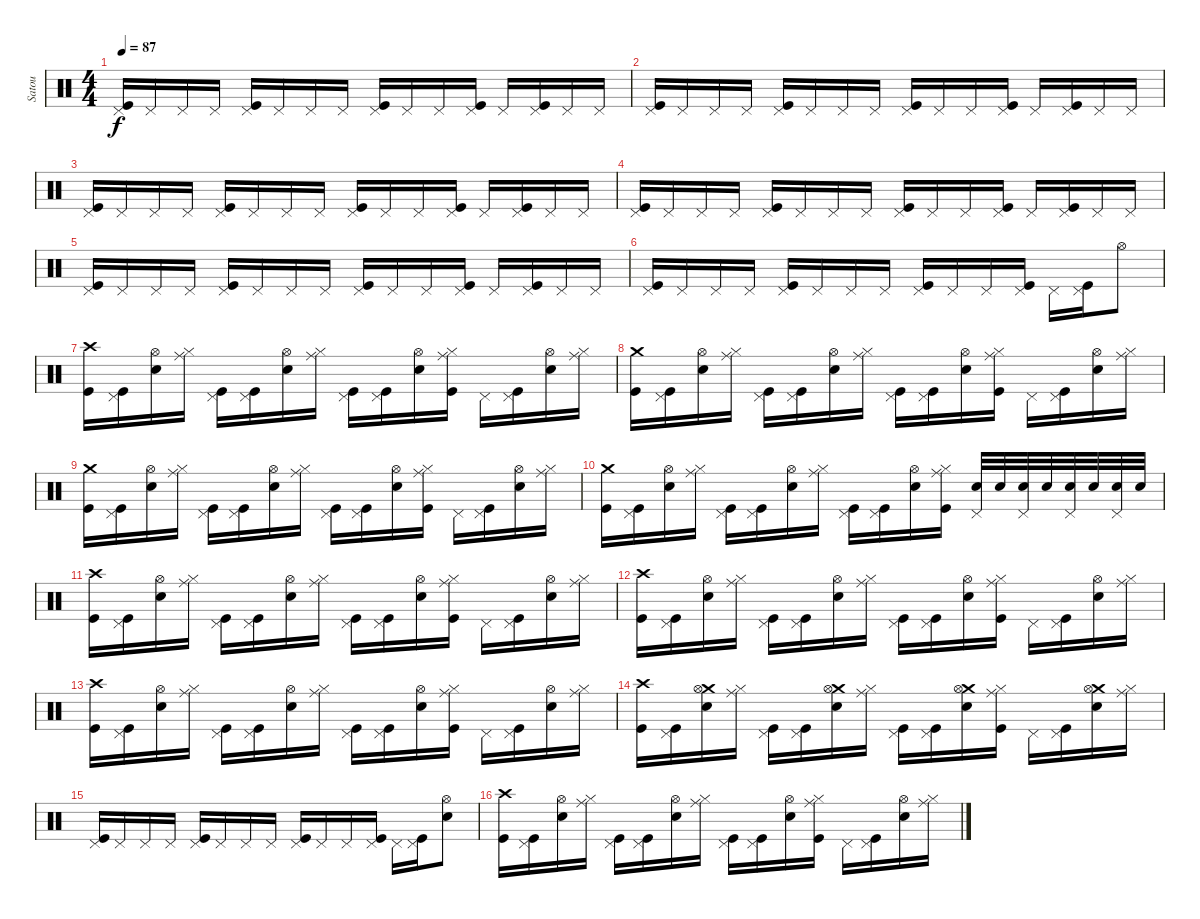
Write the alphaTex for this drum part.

\track ("Satou" "Satou") {instrument percussion}
\staff {score}
\articulation defaults
\ts (4 4)
\tempo 87
\clef neutral
\ks c
("Pedal Hi-Hat (hit)" "Kick (hit)").16{dy f} "Pedal Hi-Hat (hit)".16 "Pedal Hi-Hat (hit)".16 "Pedal Hi-Hat (hit)".16 ("Pedal Hi-Hat (hit)" "Kick (hit)").16 "Pedal Hi-Hat (hit)".16 "Pedal Hi-Hat (hit)".16 "Pedal Hi-Hat (hit)".16 ("Pedal Hi-Hat (hit)" "Kick (hit)").16 "Pedal Hi-Hat (hit)".16 "Pedal Hi-Hat (hit)".16 ("Pedal Hi-Hat (hit)" "Kick (hit)").16 "Pedal Hi-Hat (hit)".16 ("Pedal Hi-Hat (hit)" "Kick (hit)").16 "Pedal Hi-Hat (hit)".16 "Pedal Hi-Hat (hit)".16 |
("Pedal Hi-Hat (hit)" "Kick (hit)").16 "Pedal Hi-Hat (hit)".16 "Pedal Hi-Hat (hit)".16 "Pedal Hi-Hat (hit)".16 ("Pedal Hi-Hat (hit)" "Kick (hit)").16 "Pedal Hi-Hat (hit)".16 "Pedal Hi-Hat (hit)".16 "Pedal Hi-Hat (hit)".16 ("Pedal Hi-Hat (hit)" "Kick (hit)").16 "Pedal Hi-Hat (hit)".16 "Pedal Hi-Hat (hit)".16 ("Pedal Hi-Hat (hit)" "Kick (hit)").16 "Pedal Hi-Hat (hit)".16 ("Pedal Hi-Hat (hit)" "Kick (hit)").16 "Pedal Hi-Hat (hit)".16 "Pedal Hi-Hat (hit)".16 |
("Pedal Hi-Hat (hit)" "Kick (hit)").16 "Pedal Hi-Hat (hit)".16 "Pedal Hi-Hat (hit)".16 "Pedal Hi-Hat (hit)".16 ("Pedal Hi-Hat (hit)" "Kick (hit)").16 "Pedal Hi-Hat (hit)".16 "Pedal Hi-Hat (hit)".16 "Pedal Hi-Hat (hit)".16 ("Pedal Hi-Hat (hit)" "Kick (hit)").16 "Pedal Hi-Hat (hit)".16 "Pedal Hi-Hat (hit)".16 ("Pedal Hi-Hat (hit)" "Kick (hit)").16 "Pedal Hi-Hat (hit)".16 ("Pedal Hi-Hat (hit)" "Kick (hit)").16 "Pedal Hi-Hat (hit)".16 "Pedal Hi-Hat (hit)".16 |
("Pedal Hi-Hat (hit)" "Kick (hit)").16 "Pedal Hi-Hat (hit)".16 "Pedal Hi-Hat (hit)".16 "Pedal Hi-Hat (hit)".16 ("Pedal Hi-Hat (hit)" "Kick (hit)").16 "Pedal Hi-Hat (hit)".16 "Pedal Hi-Hat (hit)".16 "Pedal Hi-Hat (hit)".16 ("Pedal Hi-Hat (hit)" "Kick (hit)").16 "Pedal Hi-Hat (hit)".16 "Pedal Hi-Hat (hit)".16 ("Pedal Hi-Hat (hit)" "Kick (hit)").16 "Pedal Hi-Hat (hit)".16 ("Pedal Hi-Hat (hit)" "Kick (hit)").16 "Pedal Hi-Hat (hit)".16 "Pedal Hi-Hat (hit)".16 |
("Pedal Hi-Hat (hit)" "Kick (hit)").16 "Pedal Hi-Hat (hit)".16 "Pedal Hi-Hat (hit)".16 "Pedal Hi-Hat (hit)".16 ("Pedal Hi-Hat (hit)" "Kick (hit)").16 "Pedal Hi-Hat (hit)".16 "Pedal Hi-Hat (hit)".16 "Pedal Hi-Hat (hit)".16 ("Pedal Hi-Hat (hit)" "Kick (hit)").16 "Pedal Hi-Hat (hit)".16 "Pedal Hi-Hat (hit)".16 ("Pedal Hi-Hat (hit)" "Kick (hit)").16 "Pedal Hi-Hat (hit)".16 ("Pedal Hi-Hat (hit)" "Kick (hit)").16 "Pedal Hi-Hat (hit)".16 "Pedal Hi-Hat (hit)".16 |
("Pedal Hi-Hat (hit)" "Kick (hit)").16 "Pedal Hi-Hat (hit)".16 "Pedal Hi-Hat (hit)".16 "Pedal Hi-Hat (hit)".16 ("Pedal Hi-Hat (hit)" "Kick (hit)").16 "Pedal Hi-Hat (hit)".16 "Pedal Hi-Hat (hit)".16 "Pedal Hi-Hat (hit)".16 ("Pedal Hi-Hat (hit)" "Kick (hit)").16 "Pedal Hi-Hat (hit)".16 "Pedal Hi-Hat (hit)".16 ("Pedal Hi-Hat (hit)" "Kick (hit)").16 "Pedal Hi-Hat (hit)".16 ("Pedal Hi-Hat (hit)" "Kick (hit)").16 "Hi-Hat (open)".8 |
("Crash high (hit)" "Kick (hit)").16 ("Pedal Hi-Hat (hit)" "Kick (hit)").16 ("Hi-Hat (open)" "Snare (hit) 2").16 ("Ride (middle)" "Hi-Hat (closed)").16 ("Pedal Hi-Hat (hit)" "Kick (hit)").16 ("Pedal Hi-Hat (hit)" "Kick (hit)").16 ("Hi-Hat (open)" "Snare (hit) 2").16 ("Ride (middle)" "Hi-Hat (closed)").16 ("Pedal Hi-Hat (hit)" "Kick (hit)").16 ("Pedal Hi-Hat (hit)" "Kick (hit)").16 ("Hi-Hat (open)" "Snare (hit) 2").16 ("Ride (middle)" "Hi-Hat (closed)" "Kick (hit)").16 "Pedal Hi-Hat (hit)".16 ("Pedal Hi-Hat (hit)" "Kick (hit)").16 ("Hi-Hat (open)" "Snare (hit) 2").16 ("Ride (middle)" "Hi-Hat (closed)").16 |
("Crash medium (hit)" "Kick (hit)").16 ("Pedal Hi-Hat (hit)" "Kick (hit)").16 ("Hi-Hat (open)" "Snare (hit) 2").16 ("Ride (middle)" "Hi-Hat (closed)").16 ("Pedal Hi-Hat (hit)" "Kick (hit)").16 ("Pedal Hi-Hat (hit)" "Kick (hit)").16 ("Hi-Hat (open)" "Snare (hit) 2").16 ("Ride (middle)" "Hi-Hat (closed)").16 ("Pedal Hi-Hat (hit)" "Kick (hit)").16 ("Pedal Hi-Hat (hit)" "Kick (hit)").16 ("Hi-Hat (open)" "Snare (hit) 2").16 ("Ride (middle)" "Hi-Hat (closed)" "Kick (hit)").16 "Pedal Hi-Hat (hit)".16 ("Pedal Hi-Hat (hit)" "Kick (hit)").16 ("Hi-Hat (open)" "Snare (hit) 2").16 ("Ride (middle)" "Hi-Hat (closed)").16 |
("Crash medium (hit)" "Kick (hit)").16 ("Pedal Hi-Hat (hit)" "Kick (hit)").16 ("Hi-Hat (open)" "Snare (hit) 2").16 ("Ride (middle)" "Hi-Hat (closed)").16 ("Pedal Hi-Hat (hit)" "Kick (hit)").16 ("Pedal Hi-Hat (hit)" "Kick (hit)").16 ("Hi-Hat (open)" "Snare (hit) 2").16 ("Ride (middle)" "Hi-Hat (closed)").16 ("Pedal Hi-Hat (hit)" "Kick (hit)").16 ("Pedal Hi-Hat (hit)" "Kick (hit)").16 ("Hi-Hat (open)" "Snare (hit) 2").16 ("Ride (middle)" "Hi-Hat (closed)" "Kick (hit)").16 "Pedal Hi-Hat (hit)".16 ("Pedal Hi-Hat (hit)" "Kick (hit)").16 ("Hi-Hat (open)" "Snare (hit) 2").16 ("Ride (middle)" "Hi-Hat (closed)").16 |
("Crash medium (hit)" "Kick (hit)").16 ("Pedal Hi-Hat (hit)" "Kick (hit)").16 ("Hi-Hat (open)" "Snare (hit) 2").16 ("Ride (middle)" "Hi-Hat (closed)").16 ("Pedal Hi-Hat (hit)" "Kick (hit)").16 ("Pedal Hi-Hat (hit)" "Kick (hit)").16 ("Hi-Hat (open)" "Snare (hit) 2").16 ("Ride (middle)" "Hi-Hat (closed)").16 ("Pedal Hi-Hat (hit)" "Kick (hit)").16 ("Pedal Hi-Hat (hit)" "Kick (hit)").16 ("Hi-Hat (open)" "Snare (hit) 2").16 ("Ride (middle)" "Hi-Hat (closed)" "Kick (hit)").16 ("Pedal Hi-Hat (hit)" "Snare (hit) 2").32 "Snare (hit) 2".32 ("Pedal Hi-Hat (hit)" "Snare (hit) 2").32 "Snare (hit) 2".32 ("Pedal Hi-Hat (hit)" "Snare (hit) 2").32 "Snare (hit) 2".32 ("Pedal Hi-Hat (hit)" "Snare (hit) 2").32 "Snare (hit) 2".32 |
("Crash high (hit)" "Kick (hit)").16 ("Pedal Hi-Hat (hit)" "Kick (hit)").16 ("Hi-Hat (open)" "Snare (hit) 2").16 ("Ride (middle)" "Hi-Hat (closed)").16 ("Pedal Hi-Hat (hit)" "Kick (hit)").16 ("Pedal Hi-Hat (hit)" "Kick (hit)").16 ("Hi-Hat (open)" "Snare (hit) 2").16 ("Ride (middle)" "Hi-Hat (closed)").16 ("Pedal Hi-Hat (hit)" "Kick (hit)").16 ("Pedal Hi-Hat (hit)" "Kick (hit)").16 ("Hi-Hat (open)" "Snare (hit) 2").16 ("Ride (middle)" "Hi-Hat (closed)" "Kick (hit)").16 "Pedal Hi-Hat (hit)".16 ("Pedal Hi-Hat (hit)" "Kick (hit)").16 ("Hi-Hat (open)" "Snare (hit) 2").16 ("Ride (middle)" "Hi-Hat (closed)").16 |
("Crash high (hit)" "Kick (hit)").16 ("Pedal Hi-Hat (hit)" "Kick (hit)").16 ("Hi-Hat (open)" "Snare (hit) 2").16 ("Ride (middle)" "Hi-Hat (closed)").16 ("Pedal Hi-Hat (hit)" "Kick (hit)").16 ("Pedal Hi-Hat (hit)" "Kick (hit)").16 ("Hi-Hat (open)" "Snare (hit) 2").16 ("Ride (middle)" "Hi-Hat (closed)").16 ("Pedal Hi-Hat (hit)" "Kick (hit)").16 ("Pedal Hi-Hat (hit)" "Kick (hit)").16 ("Hi-Hat (open)" "Snare (hit) 2").16 ("Ride (middle)" "Hi-Hat (closed)" "Kick (hit)").16 "Pedal Hi-Hat (hit)".16 ("Pedal Hi-Hat (hit)" "Kick (hit)").16 ("Hi-Hat (open)" "Snare (hit) 2").16 ("Ride (middle)" "Hi-Hat (closed)").16 |
("Crash high (hit)" "Kick (hit)").16 ("Pedal Hi-Hat (hit)" "Kick (hit)").16 ("Hi-Hat (open)" "Snare (hit) 2").16 ("Ride (middle)" "Hi-Hat (closed)").16 ("Pedal Hi-Hat (hit)" "Kick (hit)").16 ("Pedal Hi-Hat (hit)" "Kick (hit)").16 ("Hi-Hat (open)" "Snare (hit) 2").16 ("Ride (middle)" "Hi-Hat (closed)").16 ("Pedal Hi-Hat (hit)" "Kick (hit)").16 ("Pedal Hi-Hat (hit)" "Kick (hit)").16 ("Hi-Hat (open)" "Snare (hit) 2").16 ("Ride (middle)" "Hi-Hat (closed)" "Kick (hit)").16 "Pedal Hi-Hat (hit)".16 ("Pedal Hi-Hat (hit)" "Kick (hit)").16 ("Hi-Hat (open)" "Snare (hit) 2").16 ("Ride (middle)" "Hi-Hat (closed)").16 |
("Crash high (hit)" "Kick (hit)").16 ("Pedal Hi-Hat (hit)" "Kick (hit)").16 ("Crash medium (hit)" "Hi-Hat (open)" "Snare (hit) 2").16 ("Ride (middle)" "Hi-Hat (closed)").16 ("Pedal Hi-Hat (hit)" "Kick (hit)").16 ("Pedal Hi-Hat (hit)" "Kick (hit)").16 ("Crash medium (hit)" "Hi-Hat (open)" "Snare (hit) 2").16 ("Ride (middle)" "Hi-Hat (closed)").16 ("Pedal Hi-Hat (hit)" "Kick (hit)").16 ("Pedal Hi-Hat (hit)" "Kick (hit)").16 ("Crash medium (hit)" "Hi-Hat (open)" "Snare (hit) 2").16 ("Ride (middle)" "Hi-Hat (closed)" "Kick (hit)").16 "Pedal Hi-Hat (hit)".16 ("Pedal Hi-Hat (hit)" "Kick (hit)").16 ("Crash medium (hit)" "Hi-Hat (open)" "Snare (hit) 2").16 ("Ride (middle)" "Hi-Hat (closed)").16 |
("Pedal Hi-Hat (hit)" "Kick (hit)").16 "Pedal Hi-Hat (hit)".16 "Pedal Hi-Hat (hit)".16 "Pedal Hi-Hat (hit)".16 ("Pedal Hi-Hat (hit)" "Kick (hit)").16 "Pedal Hi-Hat (hit)".16 "Pedal Hi-Hat (hit)".16 "Pedal Hi-Hat (hit)".16 ("Pedal Hi-Hat (hit)" "Kick (hit)").16 "Pedal Hi-Hat (hit)".16 "Pedal Hi-Hat (hit)".16 ("Pedal Hi-Hat (hit)" "Kick (hit)").16 "Pedal Hi-Hat (hit)".16 ("Pedal Hi-Hat (hit)" "Kick (hit)").16 ("Hi-Hat (open)" "Snare (hit) 2").8 |
("Crash high (hit)" "Kick (hit)").16 ("Pedal Hi-Hat (hit)" "Kick (hit)").16 ("Hi-Hat (open)" "Snare (hit) 2").16 ("Ride (middle)" "Hi-Hat (closed)").16 ("Pedal Hi-Hat (hit)" "Kick (hit)").16 ("Pedal Hi-Hat (hit)" "Kick (hit)").16 ("Hi-Hat (open)" "Snare (hit) 2").16 ("Ride (middle)" "Hi-Hat (closed)").16 ("Pedal Hi-Hat (hit)" "Kick (hit)").16 ("Pedal Hi-Hat (hit)" "Kick (hit)").16 ("Hi-Hat (open)" "Snare (hit) 2").16 ("Ride (middle)" "Hi-Hat (closed)" "Kick (hit)").16 "Pedal Hi-Hat (hit)".16 ("Pedal Hi-Hat (hit)" "Kick (hit)").16 ("Hi-Hat (open)" "Snare (hit) 2").16 ("Ride (middle)" "Hi-Hat (closed)").16
